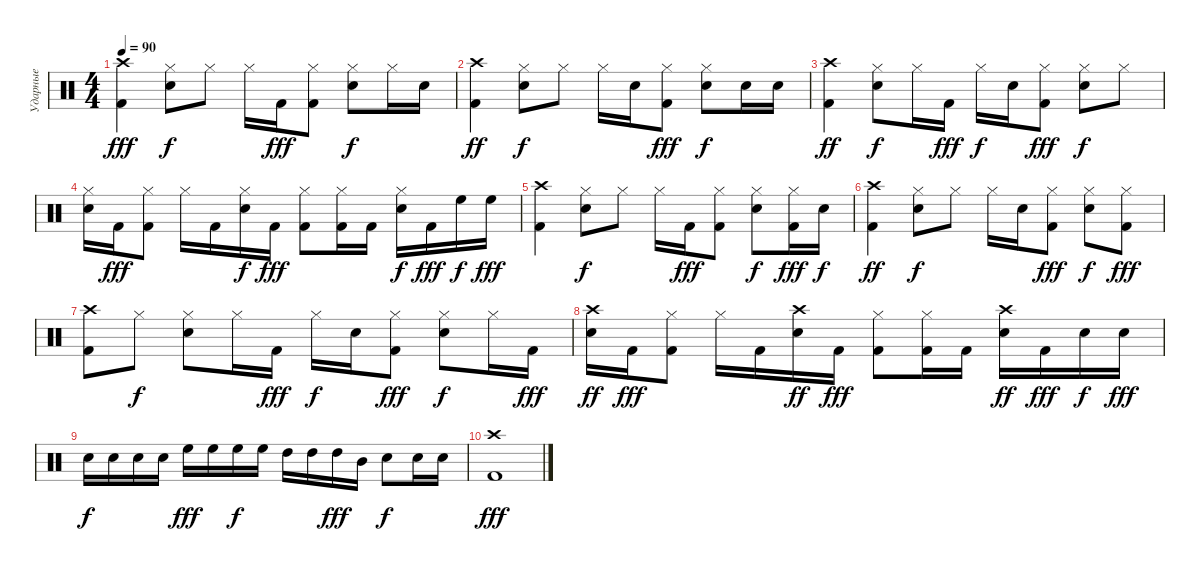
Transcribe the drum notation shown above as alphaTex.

\track ("Ударные" "Ударные") {instrument percussion}
\staff {score}
\articulation defaults
\ts (4 4)
\tempo 90
\clef neutral
\ks c
("Kick (hit) 2" "Crash high (hit)").4{dy fff} ("Snare (hit) 2" "Hi-Hat (closed)").8{dy f} "Hi-Hat (closed)".8 "Hi-Hat (closed)".16 "Kick (hit) 2".16{dy fff} ("Kick (hit) 2" "Hi-Hat (closed)").8 ("Snare (hit) 2" "Hi-Hat (closed)").8{dy f} "Hi-Hat (closed)".16 "Snare (hit) 2".16 |
("Kick (hit) 2" "Crash high (hit)").4{dy ff} ("Snare (hit) 2" "Hi-Hat (closed)").8{dy f} "Hi-Hat (closed)".8 "Hi-Hat (closed)".16 "Snare (hit) 2".16 ("Kick (hit) 2" "Hi-Hat (closed)").8{dy fff} ("Snare (hit) 2" "Hi-Hat (closed)").8{dy f} "Snare (hit) 2".16 "Snare (hit) 2".16 |
("Kick (hit) 2" "Crash high (hit)").4{dy ff} ("Snare (hit) 2" "Hi-Hat (closed)").8{dy f} "Hi-Hat (closed)".16 "Kick (hit) 2".16{dy fff} "Hi-Hat (closed)".16{dy f} "Snare (hit) 2".16 ("Kick (hit) 2" "Hi-Hat (closed)").8{dy fff} ("Snare (hit) 2" "Hi-Hat (closed)").8{dy f} "Hi-Hat (closed)".8 |
("Snare (hit) 2" "Hi-Hat (closed)").16 "Kick (hit) 2".16{dy fff} ("Kick (hit) 2" "Hi-Hat (closed)").8 "Hi-Hat (closed)".16 "Kick (hit) 2".16 ("Snare (hit) 2" "Hi-Hat (closed)").16{dy f} "Kick (hit) 2".16{dy fff} ("Kick (hit) 2" "Hi-Hat (closed)").8 ("Kick (hit) 2" "Hi-Hat (closed)").16 "Kick (hit) 2".16 ("Snare (hit) 2" "Hi-Hat (closed)").16{dy f} "Kick (hit) 2".16{dy fff} "High Floor Tom (hit)".16{dy f} "High Floor Tom (hit)".16{dy fff} |
("Kick (hit) 2" "Crash high (hit)").4 ("Snare (hit) 2" "Hi-Hat (closed)").8{dy f} "Hi-Hat (closed)".8 "Hi-Hat (closed)".16 "Kick (hit) 2".16{dy fff} ("Kick (hit) 2" "Hi-Hat (closed)").8 ("Snare (hit) 2" "Hi-Hat (closed)").8{dy f} ("Kick (hit) 2" "Hi-Hat (closed)").16{dy fff} "Snare (hit) 2".16{dy f} |
("Kick (hit) 2" "Crash high (hit)").4{dy ff} ("Snare (hit) 2" "Hi-Hat (closed)").8{dy f} "Hi-Hat (closed)".8 "Hi-Hat (closed)".16 "Snare (hit) 2".16 ("Kick (hit) 2" "Hi-Hat (closed)").8{dy fff} ("Snare (hit) 2" "Hi-Hat (closed)").8{dy f} ("Kick (hit) 2" "Hi-Hat (closed)").8{dy fff} |
("Kick (hit) 2" "Crash high (hit)").8 "Hi-Hat (closed)".8{dy f} ("Snare (hit) 2" "Hi-Hat (closed)").8 "Hi-Hat (closed)".16 "Kick (hit) 2".16{dy fff} "Hi-Hat (closed)".16{dy f} "Snare (hit) 2".16 ("Kick (hit) 2" "Hi-Hat (closed)").8{dy fff} ("Snare (hit) 2" "Hi-Hat (closed)").8{dy f} "Hi-Hat (closed)".16 "Kick (hit) 2".16{dy fff} |
("Snare (hit) 2" "Crash high (hit)").16{dy ff} "Kick (hit) 2".16{dy fff} ("Kick (hit) 2" "Hi-Hat (closed)").8 "Hi-Hat (closed)".16 "Kick (hit) 2".16 ("Snare (hit) 2" "Crash high (hit)").16{dy ff} "Kick (hit) 2".16{dy fff} ("Kick (hit) 2" "Hi-Hat (closed)").8 ("Kick (hit) 2" "Hi-Hat (closed)").16 "Kick (hit) 2".16 ("Snare (hit) 2" "Crash high (hit)").16{dy ff} "Kick (hit) 2".16{dy fff} "Snare (hit) 2".16{dy f} "Snare (hit) 2".16{dy fff} |
"Snare (hit) 2".16{dy f} "Snare (hit) 2".16 "Snare (hit) 2".16 "Snare (hit) 2".16 "High Floor Tom (hit)".16{dy fff} "High Floor Tom (hit)".16 "High Floor Tom (hit)".16{dy f} "High Floor Tom (hit)".16 "High Tom (hit)".16 "High Tom (hit)".16 "High Tom (hit)".16{dy fff} "Mid Tom (hit)".16 "Snare (hit) 2".8{dy f} "Snare (hit) 2".16 "Snare (hit) 2".16 |
("Kick (hit) 2" "Crash high (hit)").1{dy fff}
